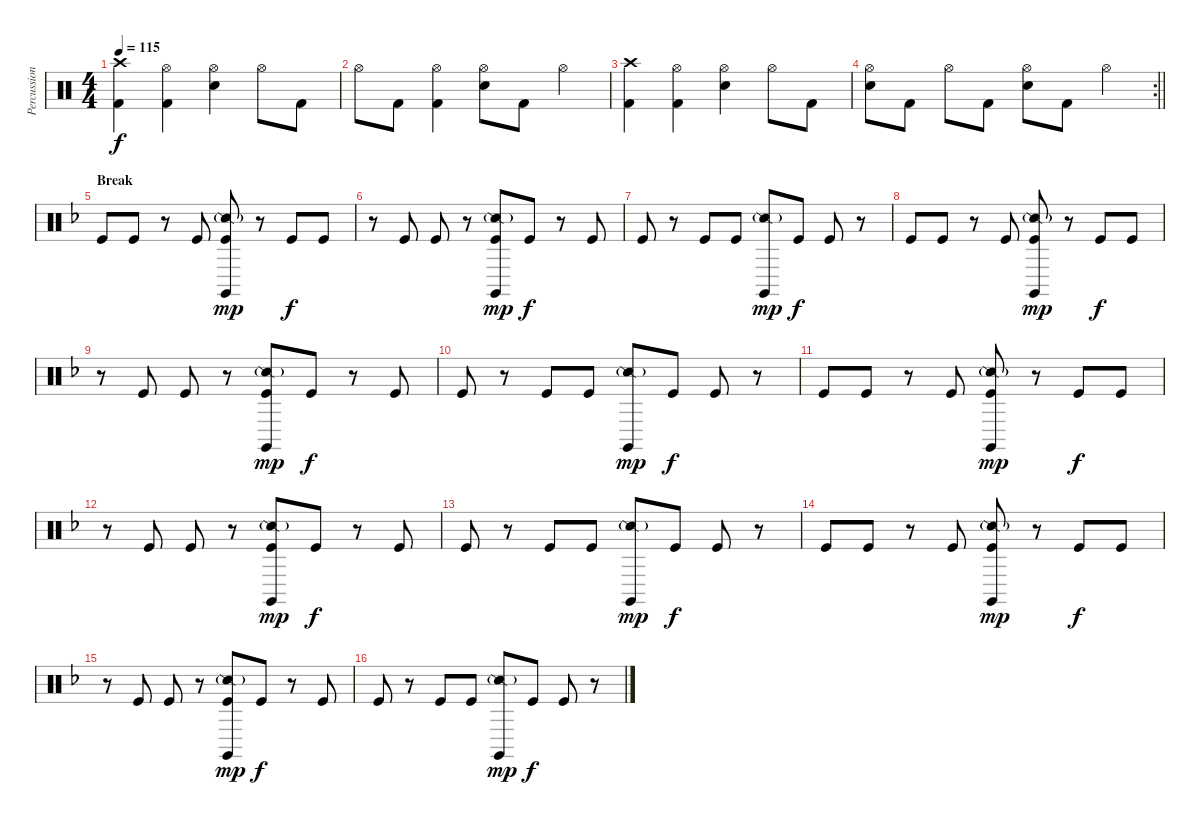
\track ("Percussion" "Percussion") {instrument percussion}
\staff {score}
\articulation defaults
\ts (4 4)
\tempo 115
\clef neutral
\ks c
("Crash high (hit)" "Kick (hit) 2").4{dy f} ("Hi-Hat (open)" "Kick (hit) 2").4 ("Hi-Hat (open)" "Electric Snare (hit)").4 "Hi-Hat (open)".8 "Kick (hit) 2".8 |
"Hi-Hat (open)".8 "Kick (hit) 2".8 ("Hi-Hat (open)" "Kick (hit) 2").4 ("Hi-Hat (open)" "Electric Snare (hit)").8 "Kick (hit) 2".8 "Hi-Hat (open)".4 |
("Crash high (hit)" "Kick (hit) 2").4 ("Hi-Hat (open)" "Kick (hit) 2").4 ("Hi-Hat (open)" "Electric Snare (hit)").4 "Hi-Hat (open)".8 "Kick (hit) 2".8 |
\rc 2
\barLineRight lightlight
("Hi-Hat (open)" "Electric Snare (hit)").8 "Kick (hit) 2".8 "Hi-Hat (open)".8 "Kick (hit) 2".8 ("Hi-Hat (open)" "Electric Snare (hit)").8 "Kick (hit) 2".8 "Hi-Hat (open)".4 |
\section ("" "Break")
\ks f "Kick (hit)".8{volume 8} "Kick (hit)".8
r.8 "Kick (hit)".8 ("Snare (side stick) 2"{g} "Claves (hit)" "Kick (hit)").8{dy mp} r.8 "Kick (hit)".8{dy f} "Kick (hit)".8 |
r.8 "Kick (hit)".8 "Kick (hit)".8 r.8 ("Snare (side stick) 2"{g} "Claves (hit)" "Kick (hit)").8{dy mp} "Kick (hit)".8{dy f} r.8 "Kick (hit)".8 |
"Kick (hit)".8 r.8 "Kick (hit)".8 "Kick (hit)".8 ("Snare (side stick) 2"{g} "Claves (hit)").8{dy mp} "Kick (hit)".8{dy f} "Kick (hit)".8 r.8 |
"Kick (hit)".8 "Kick (hit)".8 r.8 "Kick (hit)".8 ("Snare (side stick) 2"{g} "Claves (hit)" "Kick (hit)").8{dy mp} r.8 "Kick (hit)".8{dy f} "Kick (hit)".8 |
r.8 "Kick (hit)".8 "Kick (hit)".8 r.8 ("Snare (side stick) 2"{g} "Claves (hit)" "Kick (hit)").8{dy mp} "Kick (hit)".8{dy f} r.8 "Kick (hit)".8 |
"Kick (hit)".8 r.8 "Kick (hit)".8 "Kick (hit)".8 ("Snare (side stick) 2"{g} "Claves (hit)").8{dy mp} "Kick (hit)".8{dy f} "Kick (hit)".8 r.8 |
"Kick (hit)".8 "Kick (hit)".8 r.8 "Kick (hit)".8 ("Snare (side stick) 2"{g} "Claves (hit)" "Kick (hit)").8{dy mp} r.8 "Kick (hit)".8{dy f} "Kick (hit)".8 |
r.8 "Kick (hit)".8 "Kick (hit)".8 r.8 ("Snare (side stick) 2"{g} "Claves (hit)" "Kick (hit)").8{dy mp} "Kick (hit)".8{dy f} r.8 "Kick (hit)".8 |
"Kick (hit)".8 r.8 "Kick (hit)".8 "Kick (hit)".8 ("Snare (side stick) 2"{g} "Claves (hit)").8{dy mp} "Kick (hit)".8{dy f} "Kick (hit)".8 r.8 |
"Kick (hit)".8 "Kick (hit)".8 r.8 "Kick (hit)".8 ("Snare (side stick) 2"{g} "Claves (hit)" "Kick (hit)").8{dy mp} r.8 "Kick (hit)".8{dy f} "Kick (hit)".8 |
r.8 "Kick (hit)".8 "Kick (hit)".8 r.8 ("Snare (side stick) 2"{g} "Claves (hit)" "Kick (hit)").8{dy mp} "Kick (hit)".8{dy f} r.8 "Kick (hit)".8 |
"Kick (hit)".8 r.8 "Kick (hit)".8 "Kick (hit)".8 ("Snare (side stick) 2"{g} "Claves (hit)").8{dy mp} "Kick (hit)".8{dy f} "Kick (hit)".8 r.8
